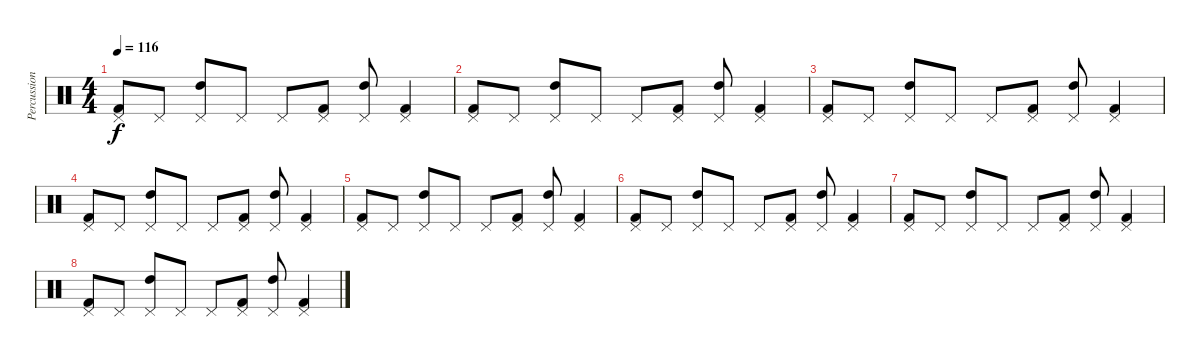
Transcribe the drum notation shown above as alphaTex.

\track ("Percussion" "Percussion") {instrument percussion}
\staff {score}
\articulation defaults
\ts (4 4)
\tempo 116
\clef neutral
\ks c
("Kick (hit) 2" "Pedal Hi-Hat (hit)").8{dy f} "Pedal Hi-Hat (hit)".8 ("High Tom (hit)" "Pedal Hi-Hat (hit)").8 "Pedal Hi-Hat (hit)".8 "Pedal Hi-Hat (hit)".8 ("Kick (hit) 2" "Pedal Hi-Hat (hit)").8 ("High Tom (hit)" "Pedal Hi-Hat (hit)").8 ("Kick (hit) 2" "Pedal Hi-Hat (hit)").4 |
("Kick (hit) 2" "Pedal Hi-Hat (hit)").8 "Pedal Hi-Hat (hit)".8 ("High Tom (hit)" "Pedal Hi-Hat (hit)").8 "Pedal Hi-Hat (hit)".8 "Pedal Hi-Hat (hit)".8 ("Kick (hit) 2" "Pedal Hi-Hat (hit)").8 ("High Tom (hit)" "Pedal Hi-Hat (hit)").8 ("Kick (hit) 2" "Pedal Hi-Hat (hit)").4 |
("Kick (hit) 2" "Pedal Hi-Hat (hit)").8 "Pedal Hi-Hat (hit)".8 ("High Tom (hit)" "Pedal Hi-Hat (hit)").8 "Pedal Hi-Hat (hit)".8 "Pedal Hi-Hat (hit)".8 ("Kick (hit) 2" "Pedal Hi-Hat (hit)").8 ("High Tom (hit)" "Pedal Hi-Hat (hit)").8 ("Kick (hit) 2" "Pedal Hi-Hat (hit)").4 |
("Kick (hit) 2" "Pedal Hi-Hat (hit)").8 "Pedal Hi-Hat (hit)".8 ("High Tom (hit)" "Pedal Hi-Hat (hit)").8 "Pedal Hi-Hat (hit)".8 "Pedal Hi-Hat (hit)".8 ("Kick (hit) 2" "Pedal Hi-Hat (hit)").8 ("High Tom (hit)" "Pedal Hi-Hat (hit)").8 ("Kick (hit) 2" "Pedal Hi-Hat (hit)").4 |
("Kick (hit) 2" "Pedal Hi-Hat (hit)").8 "Pedal Hi-Hat (hit)".8 ("High Tom (hit)" "Pedal Hi-Hat (hit)").8 "Pedal Hi-Hat (hit)".8 "Pedal Hi-Hat (hit)".8 ("Kick (hit) 2" "Pedal Hi-Hat (hit)").8 ("High Tom (hit)" "Pedal Hi-Hat (hit)").8 ("Kick (hit) 2" "Pedal Hi-Hat (hit)").4 |
("Kick (hit) 2" "Pedal Hi-Hat (hit)").8 "Pedal Hi-Hat (hit)".8 ("High Tom (hit)" "Pedal Hi-Hat (hit)").8 "Pedal Hi-Hat (hit)".8 "Pedal Hi-Hat (hit)".8 ("Kick (hit) 2" "Pedal Hi-Hat (hit)").8 ("High Tom (hit)" "Pedal Hi-Hat (hit)").8 ("Kick (hit) 2" "Pedal Hi-Hat (hit)").4 |
("Kick (hit) 2" "Pedal Hi-Hat (hit)").8 "Pedal Hi-Hat (hit)".8 ("High Tom (hit)" "Pedal Hi-Hat (hit)").8 "Pedal Hi-Hat (hit)".8 "Pedal Hi-Hat (hit)".8 ("Kick (hit) 2" "Pedal Hi-Hat (hit)").8 ("High Tom (hit)" "Pedal Hi-Hat (hit)").8 ("Kick (hit) 2" "Pedal Hi-Hat (hit)").4 |
("Kick (hit) 2" "Pedal Hi-Hat (hit)").8 "Pedal Hi-Hat (hit)".8 ("High Tom (hit)" "Pedal Hi-Hat (hit)").8 "Pedal Hi-Hat (hit)".8 "Pedal Hi-Hat (hit)".8 ("Kick (hit) 2" "Pedal Hi-Hat (hit)").8 ("High Tom (hit)" "Pedal Hi-Hat (hit)").8 ("Kick (hit) 2" "Pedal Hi-Hat (hit)").4
